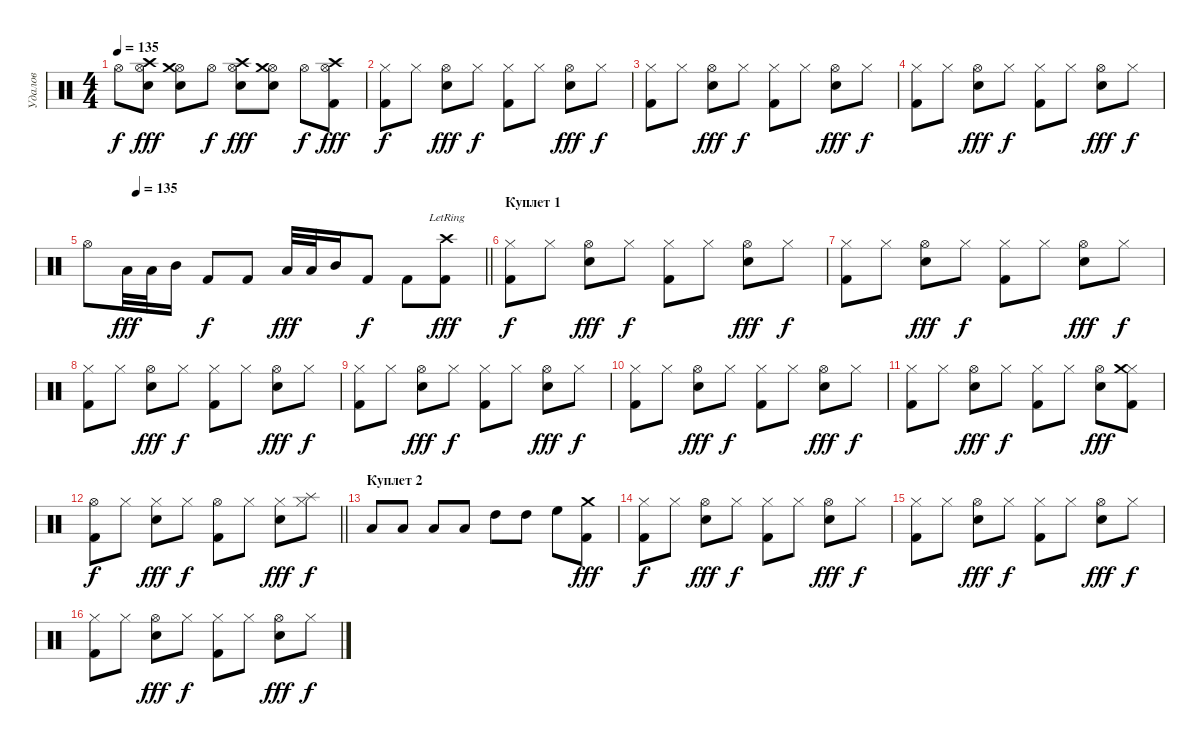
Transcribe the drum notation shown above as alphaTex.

\track ("Удалов" "Удалов") {instrument percussion}
\staff {score}
\articulation defaults
\ts (4 4)
\tempo 135
\clef neutral
\ks c "Hi-Hat (open)".8{dy f}
("Hi-Hat (open)" "Crash high (hit)" "Snare (hit) 2").8{dy fff} ("Hi-Hat (open)" "Crash medium (hit)" "Snare (hit) 2").8 "Hi-Hat (open)".8{dy f} ("Hi-Hat (open)" "Snare (hit) 2" "Crash high (hit)").8{dy fff} ("Hi-Hat (open)" "Snare (hit) 2" "Crash medium (hit)").8 "Hi-Hat (open)".8{dy f} ("Hi-Hat (open)" "Crash high (hit)" "Kick (hit) 2").8{dy fff} |
("Hi-Hat (closed)" "Kick (hit) 2").8{dy f} "Hi-Hat (closed)".8 ("Hi-Hat (open)" "Snare (hit) 2").8{dy fff} "Hi-Hat (closed)".8{dy f} ("Hi-Hat (closed)" "Kick (hit) 2").8 "Hi-Hat (closed)".8 ("Hi-Hat (open)" "Snare (hit) 2").8{dy fff} "Hi-Hat (closed)".8{dy f} |
("Hi-Hat (closed)" "Kick (hit) 2").8 "Hi-Hat (closed)".8 ("Hi-Hat (open)" "Snare (hit) 2").8{dy fff} "Hi-Hat (closed)".8{dy f} ("Hi-Hat (closed)" "Kick (hit) 2").8 "Hi-Hat (closed)".8 ("Hi-Hat (open)" "Snare (hit) 2").8{dy fff} "Hi-Hat (closed)".8{dy f} |
("Hi-Hat (closed)" "Kick (hit) 2").8 "Hi-Hat (closed)".8 ("Hi-Hat (open)" "Snare (hit) 2").8{dy fff} "Hi-Hat (closed)".8{dy f} ("Hi-Hat (closed)" "Kick (hit) 2").8 "Hi-Hat (closed)".8 ("Hi-Hat (open)" "Snare (hit) 2").8{dy fff} "Hi-Hat (closed)".8{dy f} |
\tempo (135 0.125)
\barLineRight lightlight "Hi-Hat (open)".8 "Low Floor Tom (hit)".32{dy fff} "Low Tom (hit)".32 "Mid Tom (hit)".16 "Kick (hit) 2".8{dy f} "Kick (hit) 2".8 "Low Floor Tom (hit)".32{dy fff} "Low Tom (hit)".32 "Mid Tom (hit)".16 "Kick (hit) 2".8{dy f} "Kick (hit) 2".8
("Crash high (hit)"{lr} "Kick (hit) 2").8{dy fff} |
\section ("" "Куплет 1")
("Hi-Hat (closed)" "Kick (hit) 2").8{dy f} "Hi-Hat (closed)".8 ("Hi-Hat (open)" "Snare (hit) 2").8{dy fff} "Hi-Hat (closed)".8{dy f} ("Hi-Hat (closed)" "Kick (hit) 2").8 "Hi-Hat (closed)".8 ("Hi-Hat (open)" "Snare (hit) 2").8{dy fff} "Hi-Hat (closed)".8{dy f} |
("Hi-Hat (closed)" "Kick (hit) 2").8 "Hi-Hat (closed)".8 ("Hi-Hat (open)" "Snare (hit) 2").8{dy fff} "Hi-Hat (closed)".8{dy f} ("Hi-Hat (closed)" "Kick (hit) 2").8 "Hi-Hat (closed)".8 ("Hi-Hat (open)" "Snare (hit) 2").8{dy fff} "Hi-Hat (closed)".8{dy f} |
("Hi-Hat (closed)" "Kick (hit) 2").8 "Hi-Hat (closed)".8 ("Hi-Hat (open)" "Snare (hit) 2").8{dy fff} "Hi-Hat (closed)".8{dy f} ("Hi-Hat (closed)" "Kick (hit) 2").8 "Hi-Hat (closed)".8 ("Hi-Hat (open)" "Snare (hit) 2").8{dy fff} "Hi-Hat (closed)".8{dy f} |
("Hi-Hat (closed)" "Kick (hit) 2").8 "Hi-Hat (closed)".8 ("Hi-Hat (open)" "Snare (hit) 2").8{dy fff} "Hi-Hat (closed)".8{dy f} ("Hi-Hat (closed)" "Kick (hit) 2").8 "Hi-Hat (closed)".8 ("Hi-Hat (open)" "Snare (hit) 2").8{dy fff} "Hi-Hat (closed)".8{dy f} |
("Hi-Hat (closed)" "Kick (hit) 2").8 "Hi-Hat (closed)".8 ("Hi-Hat (open)" "Snare (hit) 2").8{dy fff} "Hi-Hat (closed)".8{dy f} ("Hi-Hat (closed)" "Kick (hit) 2").8 "Hi-Hat (closed)".8 ("Hi-Hat (open)" "Snare (hit) 2").8{dy fff} "Hi-Hat (closed)".8{dy f} |
("Hi-Hat (closed)" "Kick (hit) 2").8 "Hi-Hat (closed)".8 ("Hi-Hat (open)" "Snare (hit) 2").8{dy fff} "Hi-Hat (closed)".8{dy f} ("Hi-Hat (closed)" "Kick (hit) 2").8 "Hi-Hat (closed)".8 ("Hi-Hat (open)" "Snare (hit) 2").8{dy fff} ("Hi-Hat (closed)" "Kick (hit) 2" "Crash medium (hit)").8 |
\barLineRight lightlight
("Hi-Hat (open)" "Kick (hit) 2").8{dy f} "Hi-Hat (closed)".8 ("Hi-Hat (closed)" "Snare (hit) 2").8{dy fff} "Hi-Hat (closed)".8{dy f} ("Hi-Hat (open)" "Kick (hit) 2").8 "Hi-Hat (closed)".8 ("Hi-Hat (closed)" "Snare (hit) 2").8{dy fff} ("Hi-Hat (closed)" "Splash (hit)").8{dy f} |
\section ("" "Куплет 2")
"Low Floor Tom (hit)".8 "Low Floor Tom (hit)".8 "Low Tom (hit)".8 "Low Tom (hit)".8 "High Tom (hit)".8 "High Tom (hit)".8 "High Floor Tom (hit)".8 ("Crash medium (hit)" "Kick (hit) 2").8{dy fff} |
("Hi-Hat (closed)" "Kick (hit) 2").8{dy f} "Hi-Hat (closed)".8 ("Hi-Hat (open)" "Snare (hit) 2").8{dy fff} "Hi-Hat (closed)".8{dy f} ("Hi-Hat (closed)" "Kick (hit) 2").8 "Hi-Hat (closed)".8 ("Hi-Hat (open)" "Snare (hit) 2").8{dy fff} "Hi-Hat (closed)".8{dy f} |
("Hi-Hat (closed)" "Kick (hit) 2").8 "Hi-Hat (closed)".8 ("Hi-Hat (open)" "Snare (hit) 2").8{dy fff} "Hi-Hat (closed)".8{dy f} ("Hi-Hat (closed)" "Kick (hit) 2").8 "Hi-Hat (closed)".8 ("Hi-Hat (open)" "Snare (hit) 2").8{dy fff} "Hi-Hat (closed)".8{dy f} |
("Hi-Hat (closed)" "Kick (hit) 2").8 "Hi-Hat (closed)".8 ("Hi-Hat (open)" "Snare (hit) 2").8{dy fff} "Hi-Hat (closed)".8{dy f} ("Hi-Hat (closed)" "Kick (hit) 2").8 "Hi-Hat (closed)".8 ("Hi-Hat (open)" "Snare (hit) 2").8{dy fff} "Hi-Hat (closed)".8{dy f}
